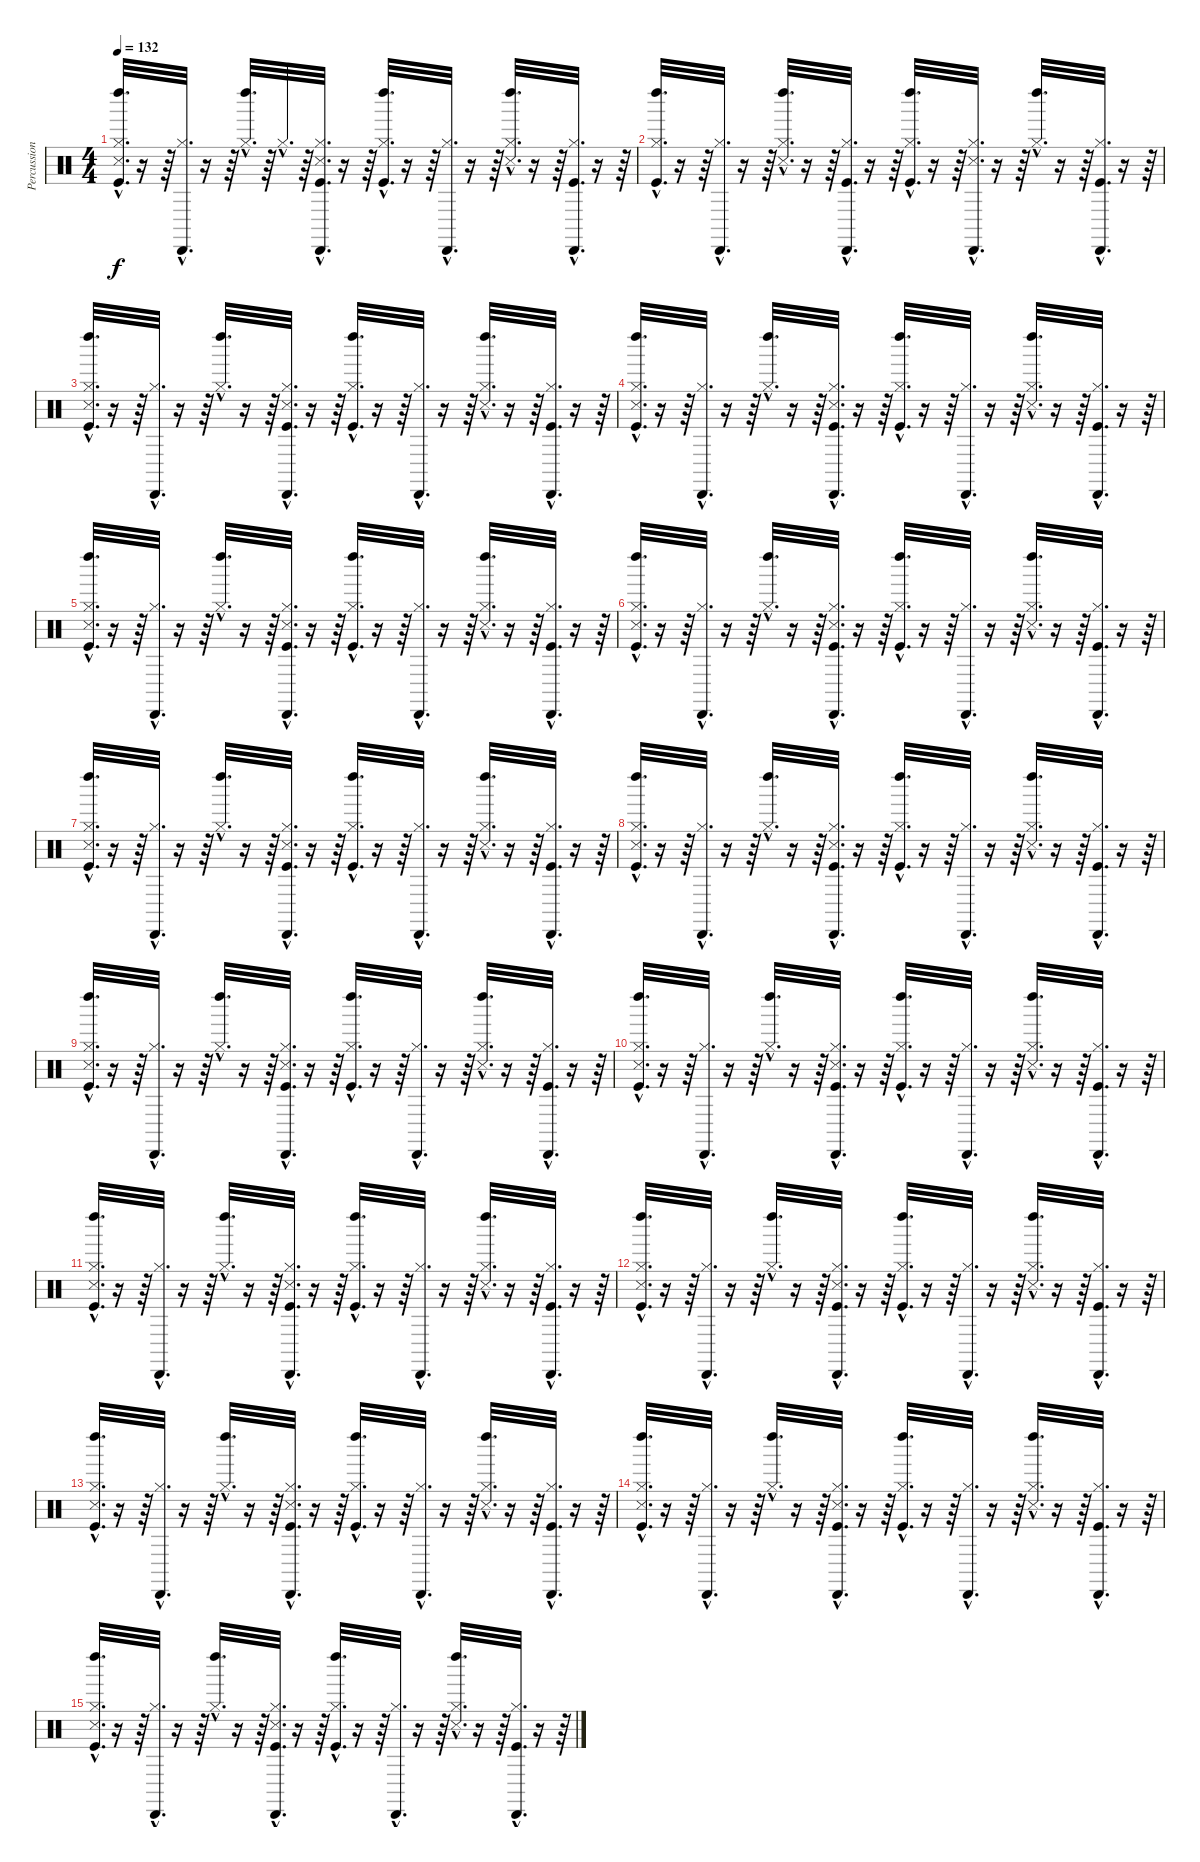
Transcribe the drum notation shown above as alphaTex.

\track ("Percussions" "Percussion") {instrument percussion}
\staff {score}
\articulation defaults
\ts (4 4)
\tempo 132
\clef neutral
\ks c
("Kick (hit)"{hac} "Hi-Hat (closed)"{hac} "Snare (side stick) 3"{hac} "Left Maraca (hit)"{hac}).32{d dy f} r.16 r.64 ("Hi-Hat (closed)"{hac} "Cabasa (hit)"{hac}).32{d} r.16 r.64 ("Hi-Hat (closed)"{hac} "Left Maraca (hit)"{hac}).32{d} r.64 "Hi-Hat (closed)"{hac}.32{d} r.64 ("Kick (hit)"{hac} "Hi-Hat (closed)"{hac} "Snare (side stick) 3"{hac} "Cabasa (hit)"{hac}).32{d} r.16 r.64 ("Kick (hit)"{hac} "Hi-Hat (closed)"{hac} "Left Maraca (hit)"{hac}).32{d} r.16 r.64 ("Hi-Hat (closed)"{hac} "Cabasa (hit)"{hac}).32{d} r.16 r.64 ("Hi-Hat (closed)"{hac} "Snare (side stick) 3"{hac} "Left Maraca (hit)"{hac}).32{d} r.16 r.64 ("Kick (hit)"{hac} "Hi-Hat (closed)"{hac} "Cabasa (hit)"{hac}).32{d} r.16 r.64 |
("Kick (hit)"{hac} "Hi-Hat (closed)"{hac} "Left Maraca (hit)"{hac}).32{d} r.16 r.64 ("Hi-Hat (closed)"{hac} "Cabasa (hit)"{hac}).32{d} r.16 r.64 ("Hi-Hat (closed)"{hac} "Snare (side stick) 3"{hac} "Left Maraca (hit)"{hac}).32{d} r.16 r.64 ("Kick (hit)"{hac} "Hi-Hat (closed)"{hac} "Cabasa (hit)"{hac}).32{d} r.16 r.64 ("Kick (hit)"{hac} "Hi-Hat (closed)"{hac} "Left Maraca (hit)"{hac}).32{d} r.16 r.64 ("Hi-Hat (closed)"{hac} "Snare (side stick) 3"{hac} "Cabasa (hit)"{hac}).32{d} r.16 r.64 ("Hi-Hat (closed)"{hac} "Left Maraca (hit)"{hac}).32{d} r.16 r.64 ("Kick (hit)"{hac} "Hi-Hat (closed)"{hac} "Cabasa (hit)"{hac}).32{d} r.16 r.64 |
("Kick (hit)"{hac} "Hi-Hat (closed)"{hac} "Snare (side stick) 3"{hac} "Left Maraca (hit)"{hac}).32{d} r.16 r.64 ("Hi-Hat (closed)"{hac} "Cabasa (hit)"{hac}).32{d} r.16 r.64 ("Hi-Hat (closed)"{hac} "Left Maraca (hit)"{hac}).32{d} r.16 r.64 ("Kick (hit)"{hac} "Hi-Hat (closed)"{hac} "Snare (side stick) 3"{hac} "Cabasa (hit)"{hac}).32{d} r.16 r.64 ("Kick (hit)"{hac} "Hi-Hat (closed)"{hac} "Left Maraca (hit)"{hac}).32{d} r.16 r.64 ("Hi-Hat (closed)"{hac} "Cabasa (hit)"{hac}).32{d} r.16 r.64 ("Hi-Hat (closed)"{hac} "Snare (side stick) 3"{hac} "Left Maraca (hit)"{hac}).32{d} r.16 r.64 ("Kick (hit)"{hac} "Hi-Hat (closed)"{hac} "Cabasa (hit)"{hac}).32{d} r.16 r.64 |
("Kick (hit)"{hac} "Hi-Hat (closed)"{hac} "Snare (side stick) 3"{hac} "Left Maraca (hit)"{hac}).32{d} r.16 r.64 ("Hi-Hat (closed)"{hac} "Cabasa (hit)"{hac}).32{d} r.16 r.64 ("Hi-Hat (closed)"{hac} "Left Maraca (hit)"{hac}).32{d} r.16 r.64 ("Kick (hit)"{hac} "Hi-Hat (closed)"{hac} "Snare (side stick) 3"{hac} "Cabasa (hit)"{hac}).32{d} r.16 r.64 ("Kick (hit)"{hac} "Hi-Hat (closed)"{hac} "Left Maraca (hit)"{hac}).32{d} r.16 r.64 ("Hi-Hat (closed)"{hac} "Cabasa (hit)"{hac}).32{d} r.16 r.64 ("Hi-Hat (closed)"{hac} "Snare (side stick) 3"{hac} "Left Maraca (hit)"{hac}).32{d} r.16 r.64 ("Kick (hit)"{hac} "Hi-Hat (closed)"{hac} "Cabasa (hit)"{hac}).32{d} r.16 r.64 |
("Kick (hit)"{hac} "Hi-Hat (closed)"{hac} "Snare (side stick) 3"{hac} "Left Maraca (hit)"{hac}).32{d} r.16 r.64 ("Hi-Hat (closed)"{hac} "Cabasa (hit)"{hac}).32{d} r.16 r.64 ("Hi-Hat (closed)"{hac} "Left Maraca (hit)"{hac}).32{d} r.16 r.64 ("Kick (hit)"{hac} "Hi-Hat (closed)"{hac} "Snare (side stick) 3"{hac} "Cabasa (hit)"{hac}).32{d} r.16 r.64 ("Kick (hit)"{hac} "Hi-Hat (closed)"{hac} "Left Maraca (hit)"{hac}).32{d} r.16 r.64 ("Hi-Hat (closed)"{hac} "Cabasa (hit)"{hac}).32{d} r.16 r.64 ("Hi-Hat (closed)"{hac} "Snare (side stick) 3"{hac} "Left Maraca (hit)"{hac}).32{d} r.16 r.64 ("Kick (hit)"{hac} "Hi-Hat (closed)"{hac} "Cabasa (hit)"{hac}).32{d} r.16 r.64 |
("Kick (hit)"{hac} "Hi-Hat (closed)"{hac} "Snare (side stick) 3"{hac} "Left Maraca (hit)"{hac}).32{d} r.16 r.64 ("Hi-Hat (closed)"{hac} "Cabasa (hit)"{hac}).32{d} r.16 r.64 ("Hi-Hat (closed)"{hac} "Left Maraca (hit)"{hac}).32{d} r.16 r.64 ("Kick (hit)"{hac} "Hi-Hat (closed)"{hac} "Snare (side stick) 3"{hac} "Cabasa (hit)"{hac}).32{d} r.16 r.64 ("Kick (hit)"{hac} "Hi-Hat (closed)"{hac} "Left Maraca (hit)"{hac}).32{d} r.16 r.64 ("Hi-Hat (closed)"{hac} "Cabasa (hit)"{hac}).32{d} r.16 r.64 ("Hi-Hat (closed)"{hac} "Snare (side stick) 3"{hac} "Left Maraca (hit)"{hac}).32{d} r.16 r.64 ("Kick (hit)"{hac} "Hi-Hat (closed)"{hac} "Cabasa (hit)"{hac}).32{d} r.16 r.64 |
("Kick (hit)"{hac} "Hi-Hat (closed)"{hac} "Snare (side stick) 3"{hac} "Left Maraca (hit)"{hac}).32{d} r.16 r.64 ("Hi-Hat (closed)"{hac} "Cabasa (hit)"{hac}).32{d} r.16 r.64 ("Hi-Hat (closed)"{hac} "Left Maraca (hit)"{hac}).32{d} r.16 r.64 ("Kick (hit)"{hac} "Hi-Hat (closed)"{hac} "Snare (side stick) 3"{hac} "Cabasa (hit)"{hac}).32{d} r.16 r.64 ("Kick (hit)"{hac} "Hi-Hat (closed)"{hac} "Left Maraca (hit)"{hac}).32{d} r.16 r.64 ("Hi-Hat (closed)"{hac} "Cabasa (hit)"{hac}).32{d} r.16 r.64 ("Hi-Hat (closed)"{hac} "Snare (side stick) 3"{hac} "Left Maraca (hit)"{hac}).32{d} r.16 r.64 ("Kick (hit)"{hac} "Hi-Hat (closed)"{hac} "Cabasa (hit)"{hac}).32{d} r.16 r.64 |
("Kick (hit)"{hac} "Hi-Hat (closed)"{hac} "Snare (side stick) 3"{hac} "Left Maraca (hit)"{hac}).32{d} r.16 r.64 ("Hi-Hat (closed)"{hac} "Cabasa (hit)"{hac}).32{d} r.16 r.64 ("Hi-Hat (closed)"{hac} "Left Maraca (hit)"{hac}).32{d} r.16 r.64 ("Kick (hit)"{hac} "Hi-Hat (closed)"{hac} "Snare (side stick) 3"{hac} "Cabasa (hit)"{hac}).32{d} r.16 r.64 ("Kick (hit)"{hac} "Hi-Hat (closed)"{hac} "Left Maraca (hit)"{hac}).32{d} r.16 r.64 ("Hi-Hat (closed)"{hac} "Cabasa (hit)"{hac}).32{d} r.16 r.64 ("Hi-Hat (closed)"{hac} "Snare (side stick) 3"{hac} "Left Maraca (hit)"{hac}).32{d} r.16 r.64 ("Kick (hit)"{hac} "Hi-Hat (closed)"{hac} "Cabasa (hit)"{hac}).32{d} r.16 r.64 |
("Kick (hit)"{hac} "Hi-Hat (closed)"{hac} "Snare (side stick) 3"{hac} "Left Maraca (hit)"{hac}).32{d} r.16 r.64 ("Hi-Hat (closed)"{hac} "Cabasa (hit)"{hac}).32{d} r.16 r.64 ("Hi-Hat (closed)"{hac} "Left Maraca (hit)"{hac}).32{d} r.16 r.64 ("Kick (hit)"{hac} "Hi-Hat (closed)"{hac} "Snare (side stick) 3"{hac} "Cabasa (hit)"{hac}).32{d} r.16 r.64 ("Kick (hit)"{hac} "Hi-Hat (closed)"{hac} "Left Maraca (hit)"{hac}).32{d} r.16 r.64 ("Hi-Hat (closed)"{hac} "Cabasa (hit)"{hac}).32{d} r.16 r.64 ("Hi-Hat (closed)"{hac} "Snare (side stick) 3"{hac} "Left Maraca (hit)"{hac}).32{d} r.16 r.64 ("Kick (hit)"{hac} "Hi-Hat (closed)"{hac} "Cabasa (hit)"{hac}).32{d} r.16 r.64 |
("Kick (hit)"{hac} "Hi-Hat (closed)"{hac} "Snare (side stick) 3"{hac} "Left Maraca (hit)"{hac}).32{d} r.16 r.64 ("Hi-Hat (closed)"{hac} "Cabasa (hit)"{hac}).32{d} r.16 r.64 ("Hi-Hat (closed)"{hac} "Left Maraca (hit)"{hac}).32{d} r.16 r.64 ("Kick (hit)"{hac} "Hi-Hat (closed)"{hac} "Snare (side stick) 3"{hac} "Cabasa (hit)"{hac}).32{d} r.16 r.64 ("Kick (hit)"{hac} "Hi-Hat (closed)"{hac} "Left Maraca (hit)"{hac}).32{d} r.16 r.64 ("Hi-Hat (closed)"{hac} "Cabasa (hit)"{hac}).32{d} r.16 r.64 ("Hi-Hat (closed)"{hac} "Snare (side stick) 3"{hac} "Left Maraca (hit)"{hac}).32{d} r.16 r.64 ("Kick (hit)"{hac} "Hi-Hat (closed)"{hac} "Cabasa (hit)"{hac}).32{d} r.16 r.64 |
("Kick (hit)"{hac} "Hi-Hat (closed)"{hac} "Snare (side stick) 3"{hac} "Left Maraca (hit)"{hac}).32{d} r.16 r.64 ("Hi-Hat (closed)"{hac} "Cabasa (hit)"{hac}).32{d} r.16 r.64 ("Hi-Hat (closed)"{hac} "Left Maraca (hit)"{hac}).32{d} r.16 r.64 ("Kick (hit)"{hac} "Hi-Hat (closed)"{hac} "Snare (side stick) 3"{hac} "Cabasa (hit)"{hac}).32{d} r.16 r.64 ("Kick (hit)"{hac} "Hi-Hat (closed)"{hac} "Left Maraca (hit)"{hac}).32{d} r.16 r.64 ("Hi-Hat (closed)"{hac} "Cabasa (hit)"{hac}).32{d} r.16 r.64 ("Hi-Hat (closed)"{hac} "Snare (side stick) 3"{hac} "Left Maraca (hit)"{hac}).32{d} r.16 r.64 ("Kick (hit)"{hac} "Hi-Hat (closed)"{hac} "Cabasa (hit)"{hac}).32{d} r.16 r.64 |
("Kick (hit)"{hac} "Hi-Hat (closed)"{hac} "Snare (side stick) 3"{hac} "Left Maraca (hit)"{hac}).32{d} r.16 r.64 ("Hi-Hat (closed)"{hac} "Cabasa (hit)"{hac}).32{d} r.16 r.64 ("Hi-Hat (closed)"{hac} "Left Maraca (hit)"{hac}).32{d} r.16 r.64 ("Kick (hit)"{hac} "Hi-Hat (closed)"{hac} "Snare (side stick) 3"{hac} "Cabasa (hit)"{hac}).32{d} r.16 r.64 ("Kick (hit)"{hac} "Hi-Hat (closed)"{hac} "Left Maraca (hit)"{hac}).32{d} r.16 r.64 ("Hi-Hat (closed)"{hac} "Cabasa (hit)"{hac}).32{d} r.16 r.64 ("Hi-Hat (closed)"{hac} "Snare (side stick) 3"{hac} "Left Maraca (hit)"{hac}).32{d} r.16 r.64 ("Kick (hit)"{hac} "Hi-Hat (closed)"{hac} "Cabasa (hit)"{hac}).32{d} r.16 r.64 |
("Kick (hit)"{hac} "Hi-Hat (closed)"{hac} "Snare (side stick) 3"{hac} "Left Maraca (hit)"{hac}).32{d} r.16 r.64 ("Hi-Hat (closed)"{hac} "Cabasa (hit)"{hac}).32{d} r.16 r.64 ("Hi-Hat (closed)"{hac} "Left Maraca (hit)"{hac}).32{d} r.16 r.64 ("Kick (hit)"{hac} "Hi-Hat (closed)"{hac} "Snare (side stick) 3"{hac} "Cabasa (hit)"{hac}).32{d} r.16 r.64 ("Kick (hit)"{hac} "Hi-Hat (closed)"{hac} "Left Maraca (hit)"{hac}).32{d} r.16 r.64 ("Hi-Hat (closed)"{hac} "Cabasa (hit)"{hac}).32{d} r.16 r.64 ("Hi-Hat (closed)"{hac} "Snare (side stick) 3"{hac} "Left Maraca (hit)"{hac}).32{d} r.16 r.64 ("Kick (hit)"{hac} "Hi-Hat (closed)"{hac} "Cabasa (hit)"{hac}).32{d} r.16 r.64 |
("Kick (hit)"{hac} "Hi-Hat (closed)"{hac} "Snare (side stick) 3"{hac} "Left Maraca (hit)"{hac}).32{d} r.16 r.64 ("Hi-Hat (closed)"{hac} "Cabasa (hit)"{hac}).32{d} r.16 r.64 ("Hi-Hat (closed)"{hac} "Left Maraca (hit)"{hac}).32{d} r.16 r.64 ("Kick (hit)"{hac} "Hi-Hat (closed)"{hac} "Snare (side stick) 3"{hac} "Cabasa (hit)"{hac}).32{d} r.16 r.64 ("Kick (hit)"{hac} "Hi-Hat (closed)"{hac} "Left Maraca (hit)"{hac}).32{d} r.16 r.64 ("Hi-Hat (closed)"{hac} "Cabasa (hit)"{hac}).32{d} r.16 r.64 ("Hi-Hat (closed)"{hac} "Snare (side stick) 3"{hac} "Left Maraca (hit)"{hac}).32{d} r.16 r.64 ("Kick (hit)"{hac} "Hi-Hat (closed)"{hac} "Cabasa (hit)"{hac}).32{d} r.16 r.64 |
("Kick (hit)"{hac} "Hi-Hat (closed)"{hac} "Snare (side stick) 3"{hac} "Left Maraca (hit)"{hac}).32{d} r.16 r.64 ("Hi-Hat (closed)"{hac} "Cabasa (hit)"{hac}).32{d} r.16 r.64 ("Hi-Hat (closed)"{hac} "Left Maraca (hit)"{hac}).32{d} r.16 r.64 ("Kick (hit)"{hac} "Hi-Hat (closed)"{hac} "Snare (side stick) 3"{hac} "Cabasa (hit)"{hac}).32{d} r.16 r.64 ("Kick (hit)"{hac} "Hi-Hat (closed)"{hac} "Left Maraca (hit)"{hac}).32{d} r.16 r.64 ("Hi-Hat (closed)"{hac} "Cabasa (hit)"{hac}).32{d} r.16 r.64 ("Hi-Hat (closed)"{hac} "Snare (side stick) 3"{hac} "Left Maraca (hit)"{hac}).32{d} r.16 r.64 ("Kick (hit)"{hac} "Hi-Hat (closed)"{hac} "Cabasa (hit)"{hac}).32{d} r.16 r.64
